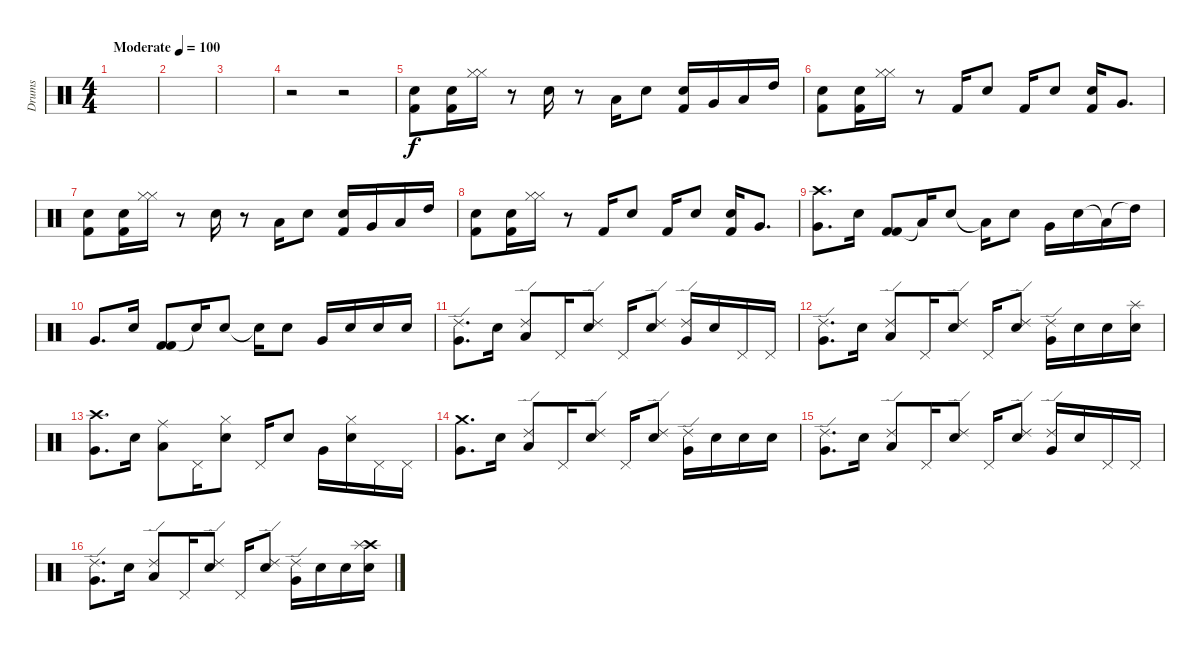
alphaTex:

\track ("Drums" "Drums") {instrument percussion}
\staff {score}
\articulation defaults
\ts (4 4)
\tempo (100 "Moderate")
\clef neutral
\ks c
|
|
|
r.2 r.2 |
("Electric Snare (hit)" "Kick (hit) 2").8 ("Electric Snare (hit)" "Kick (hit) 2").16 ("Hi-Hat (closed)" "Hi-Hat (closed)").16 r.8 "Electric Snare (hit)".16 r.8 "Low Tom (hit)".16 "Electric Snare (hit)".8 ("Kick (hit) 2" "Electric Snare (hit)").16 "Very Low Tom (hit)".16 "Low Tom (hit)".16 "High Tom (hit)".16 |
("Electric Snare (hit)" "Kick (hit) 2").8 ("Electric Snare (hit)" "Kick (hit) 2").16 ("Hi-Hat (closed)" "Hi-Hat (closed)").16 r.8 "Kick (hit) 2".16 "Snare (hit) 2".8 "Kick (hit) 2".16 "Snare (hit) 2".8 ("Kick (hit) 2" "Electric Snare (hit)").16 "Very Low Tom (hit)".8{d} |
("Electric Snare (hit)" "Kick (hit) 2").8 ("Electric Snare (hit)" "Kick (hit) 2").16 ("Hi-Hat (closed)" "Hi-Hat (closed)").16 r.8 "Electric Snare (hit)".16 r.8 "Low Tom (hit)".16 "Electric Snare (hit)".8 ("Kick (hit) 2" "Electric Snare (hit)").16 "Very Low Tom (hit)".16 "Low Tom (hit)".16 "High Tom (hit)".16 |
("Electric Snare (hit)" "Kick (hit) 2").8 ("Electric Snare (hit)" "Kick (hit) 2").16 ("Hi-Hat (closed)" "Hi-Hat (closed)").16 r.8 "Kick (hit) 2".16 "Snare (hit) 2".8 "Kick (hit) 2".16 "Snare (hit) 2".8 ("Kick (hit) 2" "Electric Snare (hit)").16 "Very Low Tom (hit)".8{d} |
("Crash high (hit)" "Very Low Tom (hit)").8{d} "Electric Snare (hit)".16 ("Kick (hit) 2" "Kick (hit) 2").8 "Low Tom (hit)"{t}.16 "Electric Snare (hit)".8 "Low Tom (hit)"{t}.16 "Electric Snare (hit)".8 "Very Low Tom (hit)".16 "Electric Snare (hit)".16 "Low Tom (hit)"{t}.16 "High Tom (hit)"{t}.16 |
"Very Low Tom (hit)".8{d} "Electric Snare (hit)".16 ("Kick (hit) 2" "Kick (hit) 2").8 "Snare (hit)"{t}.16 "Electric Snare (hit)".8 "Snare (hit)"{t}.16 "Electric Snare (hit)".8 "Very Low Tom (hit)".16 "Electric Snare (hit)".16 "Electric Snare (hit)".16 "Electric Snare (hit)".16 |
("Ride (edge) 2" "Very Low Tom (hit)").8{d} "Electric Snare (hit)".16 ("Ride (edge) 2" "Low Tom (hit)").8 "Pedal Hi-Hat (hit)".16 ("Ride (edge) 2" "Electric Snare (hit)").8 "Pedal Hi-Hat (hit)".16 ("Ride (edge) 2" "Electric Snare (hit)").8 ("Ride (edge) 2" "Very Low Tom (hit)").16 "Electric Snare (hit)".16 "Pedal Hi-Hat (hit)".16 "Pedal Hi-Hat (hit)".16 |
("Ride (edge) 2" "Very Low Tom (hit)").8{d} "Electric Snare (hit)".16 ("Ride (edge) 2" "Low Tom (hit)").8 "Pedal Hi-Hat (hit)".16 ("Ride (edge) 2" "Electric Snare (hit)").8 "Pedal Hi-Hat (hit)".16 ("Ride (edge) 2" "Electric Snare (hit)").8 ("Ride (edge) 2" "Very Low Tom (hit)").16 "Electric Snare (hit)".16 "Electric Snare (hit)".16 ("Splash (hit)" "Electric Snare (hit)").16 |
("Crash high (hit)" "Very Low Tom (hit)").8{d} "Electric Snare (hit)".16 ("Ride (middle)" "Low Tom (hit)").8 "Pedal Hi-Hat (hit)".16 ("Hi-Hat (closed)" "Electric Snare (hit)").8 "Pedal Hi-Hat (hit)".16 "Electric Snare (hit)".8 "Very Low Tom (hit)".16 ("Hi-Hat (closed)" "Electric Snare (hit)").16 "Pedal Hi-Hat (hit)".16 "Pedal Hi-Hat (hit)".16 |
("Crash medium (hit)" "Very Low Tom (hit)").8{d} "Electric Snare (hit)".16 ("Ride (edge) 2" "Low Tom (hit)").8 "Pedal Hi-Hat (hit)".16 ("Ride (edge) 2" "Electric Snare (hit)").8 "Pedal Hi-Hat (hit)".16 ("Ride (edge) 2" "Electric Snare (hit)").8 ("Ride (edge) 2" "Very Low Tom (hit)").16 "Electric Snare (hit)".16 "Electric Snare (hit)".16 "Electric Snare (hit)".16 |
("Ride (edge) 2" "Very Low Tom (hit)").8{d} "Electric Snare (hit)".16 ("Ride (edge) 2" "Low Tom (hit)").8 "Pedal Hi-Hat (hit)".16 ("Ride (edge) 2" "Electric Snare (hit)").8 "Pedal Hi-Hat (hit)".16 ("Ride (edge) 2" "Electric Snare (hit)").8 ("Ride (edge) 2" "Very Low Tom (hit)").16 "Electric Snare (hit)".16 "Pedal Hi-Hat (hit)".16 "Pedal Hi-Hat (hit)".16 |
("Ride (edge) 2" "Very Low Tom (hit)").8{d} "Electric Snare (hit)".16 ("Ride (edge) 2" "Low Tom (hit)").8 "Pedal Hi-Hat (hit)".16 ("Ride (edge) 2" "Electric Snare (hit)").8 "Pedal Hi-Hat (hit)".16 ("Ride (edge) 2" "Electric Snare (hit)").8 ("Ride (edge) 2" "Very Low Tom (hit)").16 "Electric Snare (hit)".16 "Electric Snare (hit)".16 ("Crash high (hit)" "Splash (hit)" "Electric Snare (hit)").16
